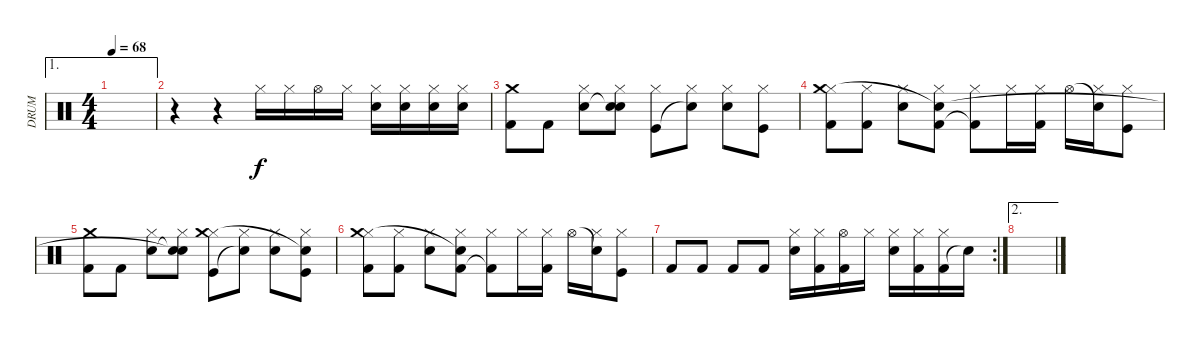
\track ("DRUM" "DRUM") {instrument percussion}
\staff {score}
\articulation defaults
\ae 1
\ts (4 4)
\tempo 68
\clef neutral
\ks c
|
r.4 r.4 "Hi-Hat (closed)".16 "Hi-Hat (closed)".16 "Hi-Hat (open)".16 "Hi-Hat (closed)".16 ("Electric Snare (hit)" "Hi-Hat (closed)").16 ("Electric Snare (hit)" "Hi-Hat (closed)").16 ("Snare (hit) 2" "Hi-Hat (closed)").16 ("Snare (hit) 2" "Hi-Hat (closed)").16 |
("Kick (hit) 2" "Crash medium (hit)").8 "Kick (hit) 2".8 ("Snare (hit) 2" "Hi-Hat (closed)").8 ("Snare (hit)"{t} "Hi-Hat (closed)" "Snare (hit)").8 ("Kick (hit)" "Hi-Hat (closed)").8 ("Snare (hit)"{t} "Hi-Hat (closed)").8 ("Snare (hit) 2" "Hi-Hat (closed)").8 ("Kick (hit)" "Hi-Hat (closed)").8 |
("Kick (hit) 2" "Hi-Hat (closed)" "Crash medium (hit)").8 ("Kick (hit) 2" "Hi-Hat (closed)").8 ("Snare (hit) 2" "Hi-Hat (closed)").8 ("Kick (hit) 2" "Hi-Hat (closed)" "Snare (hit)"{t}).8 ("Kick (hit) 2"{t} "Hi-Hat (closed)").8 "Hi-Hat (closed)".16 ("Kick (hit) 2" "Hi-Hat (closed)").16 "Hi-Hat (open)".16 ("Snare (hit)"{t} "Hi-Hat (closed)").16 ("Kick (hit)" "Hi-Hat (closed)").8 |
("Kick (hit) 2" "Crash medium (hit)").8 "Kick (hit) 2".8 ("Snare (hit) 2" "Hi-Hat (closed)").8 ("Snare (hit)"{t} "Hi-Hat (closed)" "Snare (hit)"{t}).8 ("Kick (hit)" "Hi-Hat (closed)" "Crash medium (hit)").8 ("Snare (hit)"{t} "Hi-Hat (closed)").8 ("Snare (hit) 2" "Hi-Hat (closed)").8 ("Kick (hit)" "Hi-Hat (closed)" "Snare (hit)"{t}).8 |
("Kick (hit) 2" "Hi-Hat (closed)" "Crash medium (hit)").8 ("Kick (hit) 2" "Hi-Hat (closed)").8 ("Snare (hit) 2" "Hi-Hat (closed)").8 ("Kick (hit) 2" "Hi-Hat (closed)" "Snare (hit)"{t}).8 ("Kick (hit) 2"{t} "Hi-Hat (closed)").8 "Hi-Hat (closed)".16 ("Kick (hit) 2" "Hi-Hat (closed)").16 "Hi-Hat (open)".16 ("Snare (hit)"{t} "Hi-Hat (closed)").16 ("Kick (hit)" "Hi-Hat (closed)").8 |
\rc 2 "Kick (hit) 2".8 "Kick (hit) 2".8 "Kick (hit) 2".8 "Kick (hit) 2".8
("Snare (hit) 2" "Hi-Hat (closed)").16 ("Kick (hit) 2" "Hi-Hat (closed)").16 ("Kick (hit) 2" "Hi-Hat (open)").16 "Hi-Hat (closed)".16 ("Snare (hit) 2" "Hi-Hat (closed)").16 ("Kick (hit) 2" "Hi-Hat (closed)").16 ("Kick (hit) 2" "Hi-Hat (closed)").16 "Snare (hit)"{t}.16 |
\ae 2
